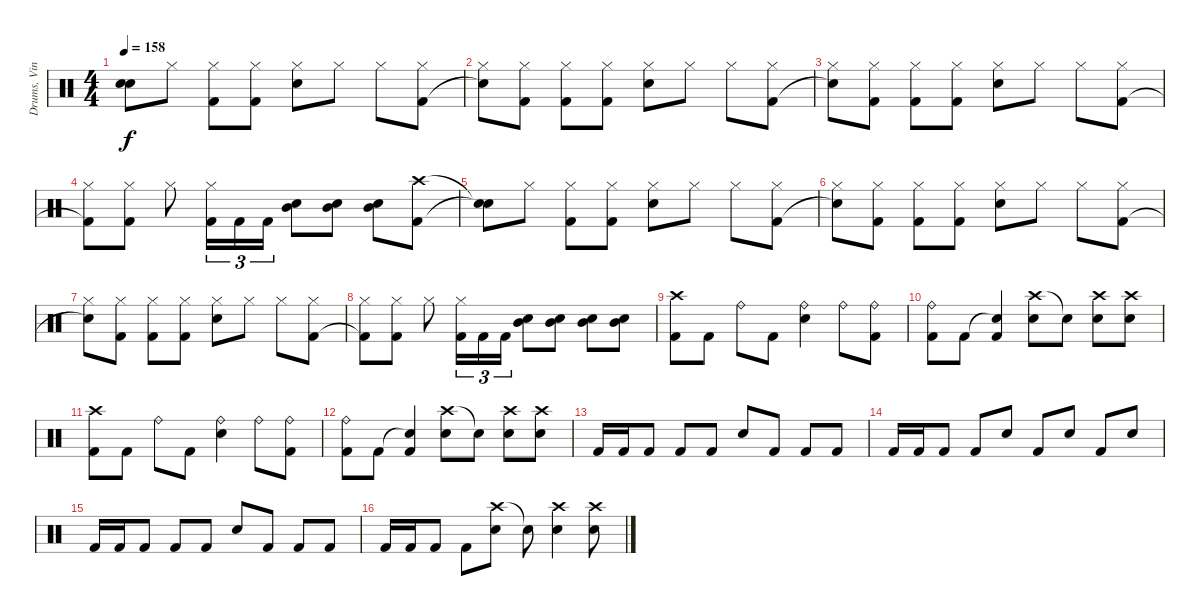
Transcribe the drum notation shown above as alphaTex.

\track ("Drums, Vinnie" "Drums, Vin") {instrument percussion}
\staff {score}
\articulation defaults
\ts (4 4)
\tempo 158
\clef neutral
\ks c
("Snare (hit)"{t} "Snare (hit)"{t}).8{dy f} "Hi-Hat (closed)".8 ("Hi-Hat (closed)" "Kick (hit) 2").8 ("Hi-Hat (closed)" "Kick (hit) 2").8 ("Hi-Hat (closed)" "Electric Snare (hit)").8 "Hi-Hat (closed)".8 "Hi-Hat (closed)".8 ("Hi-Hat (closed)" "Kick (hit) 2").8 |
("Hi-Hat (closed)" "Snare (hit)"{t}).8 ("Hi-Hat (closed)" "Kick (hit) 2").8 ("Hi-Hat (closed)" "Kick (hit) 2").8 ("Hi-Hat (closed)" "Kick (hit) 2").8 ("Hi-Hat (closed)" "Electric Snare (hit)").8 "Hi-Hat (closed)".8 "Hi-Hat (closed)".8 ("Hi-Hat (closed)" "Kick (hit) 2").8 |
("Hi-Hat (closed)" "Snare (hit)"{t}).8 ("Hi-Hat (closed)" "Kick (hit) 2").8 ("Hi-Hat (closed)" "Kick (hit) 2").8 ("Hi-Hat (closed)" "Kick (hit) 2").8 ("Hi-Hat (closed)" "Electric Snare (hit)").8 "Hi-Hat (closed)".8 "Hi-Hat (closed)".8 ("Hi-Hat (closed)" "Kick (hit) 2").8 |
("Hi-Hat (closed)" "Kick (hit) 2"{t}).8 ("Hi-Hat (closed)" "Kick (hit) 2").8 "Hi-Hat (closed)".8 ("Hi-Hat (closed)" "Kick (hit) 2").16{tu (3 2)} "Kick (hit) 2".16{tu (3 2)} "Kick (hit) 2".16{tu (3 2)} ("Electric Snare (hit)" "Mid Tom (hit)").8 ("Electric Snare (hit)" "Mid Tom (hit)").8 ("Electric Snare (hit)" "Mid Tom (hit)").8 ("Crash high (hit)" "Kick (hit) 2").8 |
("Snare (hit)"{t} "Snare (hit)"{t}).8 "Hi-Hat (closed)".8 ("Hi-Hat (closed)" "Kick (hit) 2").8 ("Hi-Hat (closed)" "Kick (hit) 2").8 ("Hi-Hat (closed)" "Electric Snare (hit)").8 "Hi-Hat (closed)".8 "Hi-Hat (closed)".8 ("Hi-Hat (closed)" "Kick (hit) 2").8 |
("Hi-Hat (closed)" "Snare (hit)"{t}).8 ("Hi-Hat (closed)" "Kick (hit) 2").8 ("Hi-Hat (closed)" "Kick (hit) 2").8 ("Hi-Hat (closed)" "Kick (hit) 2").8 ("Hi-Hat (closed)" "Electric Snare (hit)").8 "Hi-Hat (closed)".8 "Hi-Hat (closed)".8 ("Hi-Hat (closed)" "Kick (hit) 2").8 |
("Hi-Hat (closed)" "Snare (hit)"{t}).8 ("Hi-Hat (closed)" "Kick (hit) 2").8 ("Hi-Hat (closed)" "Kick (hit) 2").8 ("Hi-Hat (closed)" "Kick (hit) 2").8 ("Hi-Hat (closed)" "Electric Snare (hit)").8 "Hi-Hat (closed)".8 "Hi-Hat (closed)".8 ("Hi-Hat (closed)" "Kick (hit) 2").8 |
("Hi-Hat (closed)" "Kick (hit) 2"{t}).8 ("Hi-Hat (closed)" "Kick (hit) 2").8 "Hi-Hat (closed)".8 ("Hi-Hat (closed)" "Kick (hit) 2").16{tu (3 2)} "Kick (hit) 2".16{tu (3 2)} "Kick (hit) 2".16{tu (3 2)} ("Electric Snare (hit)" "Mid Tom (hit)").8 ("Electric Snare (hit)" "Mid Tom (hit)").8 ("Electric Snare (hit)" "Mid Tom (hit)").8 ("Electric Snare (hit)" "Mid Tom (hit)").8 |
("Crash high (hit)" "Kick (hit) 2").8 "Kick (hit) 2".8 "Ride (bell)".8 "Kick (hit) 2".8 ("Ride (bell)" "Electric Snare (hit)").4 "Ride (bell)".8 ("Ride (bell)" "Kick (hit) 2").8 |
("Ride (bell)" "Kick (hit) 2").8 "Kick (hit) 2".8 ("Snare (hit)"{t} "Kick (hit) 2").4 ("Crash high (hit)" "Electric Snare (hit)").8 "Snare (hit)"{t}.8 ("Crash high (hit)" "Electric Snare (hit)").8 ("Crash high (hit)" "Electric Snare (hit)").8 |
("Crash high (hit)" "Kick (hit) 2").8 "Kick (hit) 2".8 "Ride (bell)".8 "Kick (hit) 2".8 ("Ride (bell)" "Electric Snare (hit)").4 "Ride (bell)".8 ("Ride (bell)" "Kick (hit) 2").8 |
("Ride (bell)" "Kick (hit) 2").8 "Kick (hit) 2".8 ("Snare (hit)"{t} "Kick (hit) 2").4 ("Crash high (hit)" "Electric Snare (hit)").8 "Snare (hit)"{t}.8 ("Crash high (hit)" "Electric Snare (hit)").8 ("Crash high (hit)" "Electric Snare (hit)").8 |
"Kick (hit) 2".16 "Kick (hit) 2".16 "Kick (hit) 2".8 "Kick (hit) 2".8 "Kick (hit) 2".8 "Electric Snare (hit)".8 "Kick (hit) 2".8 "Kick (hit) 2".8 "Kick (hit) 2".8 |
"Kick (hit) 2".16 "Kick (hit) 2".16 "Kick (hit) 2".8 "Kick (hit) 2".8 "Electric Snare (hit)".8 "Kick (hit) 2".8 "Electric Snare (hit)".8 "Kick (hit) 2".8 "Electric Snare (hit)".8 |
"Kick (hit) 2".16 "Kick (hit) 2".16 "Kick (hit) 2".8 "Kick (hit) 2".8 "Kick (hit) 2".8 "Electric Snare (hit)".8 "Kick (hit) 2".8 "Kick (hit) 2".8 "Kick (hit) 2".8 |
"Kick (hit) 2".16 "Kick (hit) 2".16 "Kick (hit) 2".8 "Kick (hit) 2".8 ("Crash high (hit)" "Electric Snare (hit)").8 "Snare (hit)"{t}.8 ("Crash high (hit)" "Electric Snare (hit)").4 ("Crash high (hit)" "Electric Snare (hit)").8
